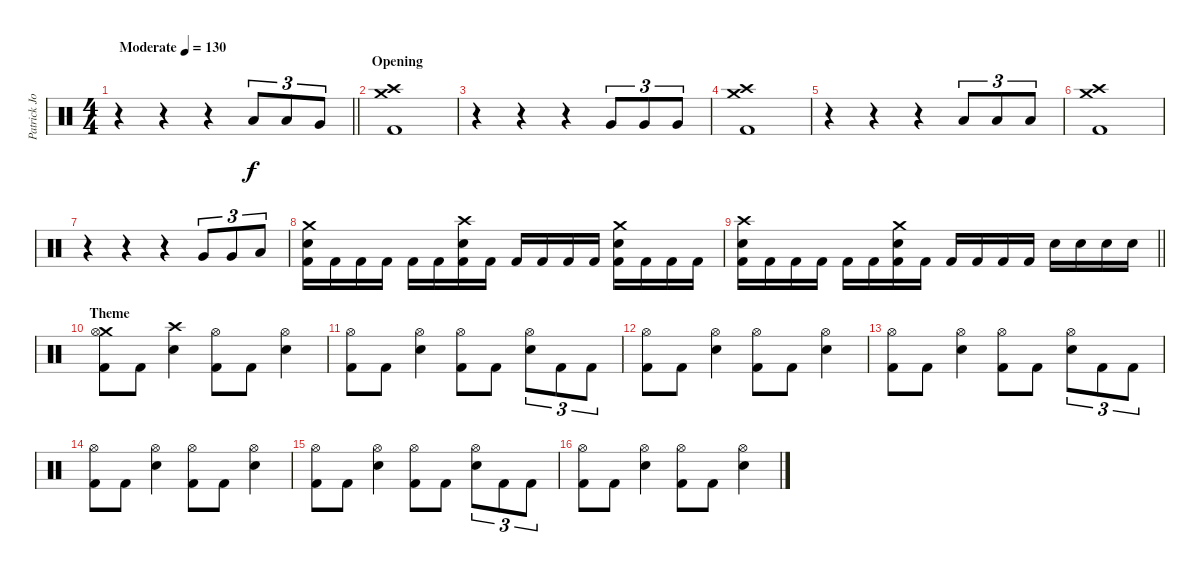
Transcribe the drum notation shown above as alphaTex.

\track ("Patrick Johansson " "Patrick Jo") {instrument percussion}
\staff {score}
\articulation defaults
\ts (4 4)
\tempo (130 "Moderate")
\clef neutral
\barLineRight lightlight
\ks c
r.4{dy f} r.4 r.4 "Low Tom (hit)".8{tu (3 2)} "Low Tom (hit)".8{tu (3 2)} "Very Low Tom (hit)".8{tu (3 2)} |
\section ("" "Opening")
("Crash medium (hit)" "Crash high (hit)" "Kick (hit) 2").1 |
r.4 r.4 r.4 "Very Low Tom (hit)".8{tu (3 2)} "Very Low Tom (hit)".8{tu (3 2)} "Very Low Tom (hit)".8{tu (3 2)} |
("Crash medium (hit)" "Crash high (hit)" "Kick (hit) 2").1 |
r.4 r.4 r.4 "Low Floor Tom (hit)".8{tu (3 2)} "Low Floor Tom (hit)".8{tu (3 2)} "Low Floor Tom (hit)".8{tu (3 2)} |
("Crash medium (hit)" "Crash high (hit)" "Kick (hit) 2").1 |
r.4 r.4 r.4 "Very Low Tom (hit)".8{tu (3 2)} "Very Low Tom (hit)".8{tu (3 2)} "Low Floor Tom (hit)".8{tu (3 2)} |
("Crash medium (hit)" "Snare (hit) 2" "Kick (hit) 2").16 "Kick (hit) 2".16 "Kick (hit) 2".16 "Kick (hit) 2".16 "Kick (hit) 2".16 "Kick (hit) 2".16 ("Crash high (hit)" "Snare (hit) 2" "Kick (hit) 2").16 "Kick (hit) 2".16 "Kick (hit) 2".16 "Kick (hit) 2".16 "Kick (hit) 2".16 "Kick (hit) 2".16 ("Crash medium (hit)" "Snare (hit) 2" "Kick (hit) 2").16 "Kick (hit) 2".16 "Kick (hit) 2".16 "Kick (hit) 2".16 |
\barLineRight lightlight
("Crash high (hit)" "Snare (hit) 2" "Kick (hit) 2").16 "Kick (hit) 2".16 "Kick (hit) 2".16 "Kick (hit) 2".16 "Kick (hit) 2".16 "Kick (hit) 2".16 ("Crash medium (hit)" "Snare (hit) 2" "Kick (hit) 2").16 "Kick (hit) 2".16 "Kick (hit) 2".16 "Kick (hit) 2".16 "Kick (hit) 2".16 "Kick (hit) 2".16 "Snare (hit) 2".16 "Snare (hit) 2".16 "Snare (hit) 2".16 "Snare (hit) 2".16 |
\section ("" "Theme")
("Crash medium (hit)" "Hi-Hat (open)" "Kick (hit) 2").8 "Kick (hit) 2".8 ("Crash high (hit)" "Snare (hit) 2").4 ("Hi-Hat (open)" "Kick (hit) 2").8 "Kick (hit) 2".8 ("Hi-Hat (open)" "Snare (hit) 2").4 |
("Hi-Hat (open)" "Kick (hit) 2").8 "Kick (hit) 2".8 ("Hi-Hat (open)" "Snare (hit) 2").4 ("Hi-Hat (open)" "Kick (hit) 2").8 "Kick (hit) 2".8 ("Hi-Hat (open)" "Snare (hit) 2").8{tu (3 2)} "Kick (hit) 2".8{tu (3 2)} "Kick (hit) 2".8{tu (3 2)} |
("Hi-Hat (open)" "Kick (hit) 2").8 "Kick (hit) 2".8 ("Hi-Hat (open)" "Snare (hit) 2").4 ("Hi-Hat (open)" "Kick (hit) 2").8 "Kick (hit) 2".8 ("Hi-Hat (open)" "Snare (hit) 2").4 |
("Hi-Hat (open)" "Kick (hit) 2").8 "Kick (hit) 2".8 ("Hi-Hat (open)" "Snare (hit) 2").4 ("Hi-Hat (open)" "Kick (hit) 2").8 "Kick (hit) 2".8 ("Hi-Hat (open)" "Snare (hit) 2").8{tu (3 2)} "Kick (hit) 2".8{tu (3 2)} "Kick (hit) 2".8{tu (3 2)} |
("Hi-Hat (open)" "Kick (hit) 2").8 "Kick (hit) 2".8 ("Hi-Hat (open)" "Snare (hit) 2").4 ("Hi-Hat (open)" "Kick (hit) 2").8 "Kick (hit) 2".8 ("Hi-Hat (open)" "Snare (hit) 2").4 |
("Hi-Hat (open)" "Kick (hit) 2").8 "Kick (hit) 2".8 ("Hi-Hat (open)" "Snare (hit) 2").4 ("Hi-Hat (open)" "Kick (hit) 2").8 "Kick (hit) 2".8 ("Hi-Hat (open)" "Snare (hit) 2").8{tu (3 2)} "Kick (hit) 2".8{tu (3 2)} "Kick (hit) 2".8{tu (3 2)} |
("Hi-Hat (open)" "Kick (hit) 2").8 "Kick (hit) 2".8 ("Hi-Hat (open)" "Snare (hit) 2").4 ("Hi-Hat (open)" "Kick (hit) 2").8 "Kick (hit) 2".8 ("Hi-Hat (open)" "Snare (hit) 2").4
